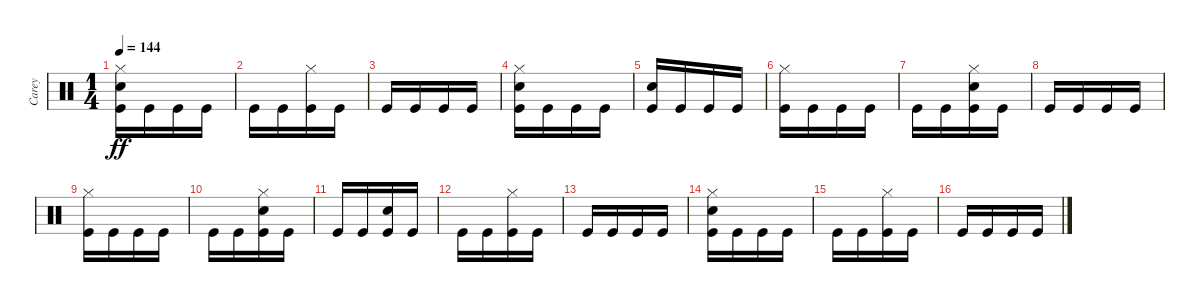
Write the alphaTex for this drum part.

\track ("Carey" "Carey") {instrument percussion}
\staff {score}
\articulation defaults
\ts (1 4)
\tempo 144
\clef neutral
\ks c
("Kick (hit)" "Snare (hit) 2" "Hi-Hat (closed)").16{dy ff} "Kick (hit)".16 "Kick (hit)".16 "Kick (hit)".16 |
"Kick (hit)".16 "Kick (hit)".16 ("Kick (hit)" "Hi-Hat (closed)").16 "Kick (hit)".16 |
"Kick (hit)".16 "Kick (hit)".16 "Kick (hit)".16 "Kick (hit)".16 |
("Kick (hit)" "Snare (hit) 2" "Hi-Hat (closed)").16 "Kick (hit)".16 "Kick (hit)".16 "Kick (hit)".16 |
("Kick (hit)" "Snare (hit) 2").16 "Kick (hit)".16 "Kick (hit)".16 "Kick (hit)".16 |
("Kick (hit)" "Hi-Hat (closed)").16 "Kick (hit)".16 "Kick (hit)".16 "Kick (hit)".16 |
"Kick (hit)".16 "Kick (hit)".16 ("Kick (hit)" "Snare (hit) 2" "Hi-Hat (closed)").16 "Kick (hit)".16 |
"Kick (hit)".16 "Kick (hit)".16 "Kick (hit)".16 "Kick (hit)".16 |
("Kick (hit)" "Hi-Hat (closed)").16 "Kick (hit)".16 "Kick (hit)".16 "Kick (hit)".16 |
"Kick (hit)".16 "Kick (hit)".16 ("Kick (hit)" "Snare (hit) 2" "Hi-Hat (closed)").16 "Kick (hit)".16 |
"Kick (hit)".16 "Kick (hit)".16 ("Kick (hit)" "Snare (hit) 2").16 "Kick (hit)".16 |
"Kick (hit)".16 "Kick (hit)".16 ("Kick (hit)" "Hi-Hat (closed)").16 "Kick (hit)".16 |
"Kick (hit)".16 "Kick (hit)".16 "Kick (hit)".16 "Kick (hit)".16 |
("Kick (hit)" "Snare (hit) 2" "Hi-Hat (closed)").16 "Kick (hit)".16 "Kick (hit)".16 "Kick (hit)".16 |
"Kick (hit)".16 "Kick (hit)".16 ("Kick (hit)" "Hi-Hat (closed)").16 "Kick (hit)".16 |
"Kick (hit)".16 "Kick (hit)".16 "Kick (hit)".16 "Kick (hit)".16
